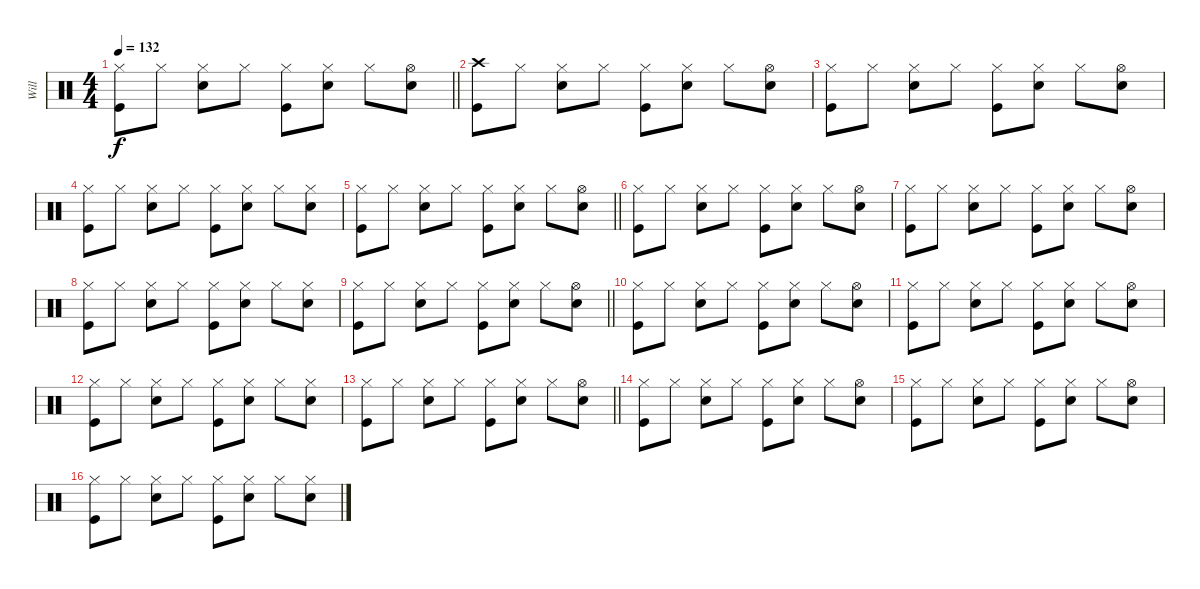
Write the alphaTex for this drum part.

\track ("Will" "Will") {instrument percussion}
\staff {score}
\articulation defaults
\ts (4 4)
\tempo 132
\clef neutral
\barLineRight lightlight
\ks c
("Hi-Hat (closed)" "Kick (hit)").8{dy f} "Hi-Hat (closed)".8 ("Hi-Hat (closed)" "Snare (hit) 2").8 "Hi-Hat (closed)".8 ("Hi-Hat (closed)" "Kick (hit)").8 ("Hi-Hat (closed)" "Snare (hit) 2").8 "Hi-Hat (closed)".8 ("Hi-Hat (open)" "Snare (hit) 2").8 |
("Crash high (hit)" "Kick (hit)").8 "Hi-Hat (closed)".8 ("Hi-Hat (closed)" "Snare (hit) 2").8 "Hi-Hat (closed)".8 ("Hi-Hat (closed)" "Kick (hit)").8 ("Hi-Hat (closed)" "Snare (hit) 2").8 "Hi-Hat (closed)".8 ("Hi-Hat (open)" "Snare (hit) 2").8 |
("Hi-Hat (closed)" "Kick (hit)").8 "Hi-Hat (closed)".8 ("Hi-Hat (closed)" "Snare (hit) 2").8 "Hi-Hat (closed)".8 ("Hi-Hat (closed)" "Kick (hit)").8 ("Hi-Hat (closed)" "Snare (hit) 2").8 "Hi-Hat (closed)".8 ("Hi-Hat (open)" "Snare (hit) 2").8 |
("Hi-Hat (closed)" "Kick (hit)").8 "Hi-Hat (closed)".8 ("Hi-Hat (closed)" "Snare (hit) 2").8 "Hi-Hat (closed)".8 ("Hi-Hat (closed)" "Kick (hit)").8 ("Hi-Hat (closed)" "Snare (hit) 2").8 "Hi-Hat (closed)".8 ("Hi-Hat (closed)" "Snare (hit) 2").8 |
\barLineRight lightlight
("Hi-Hat (closed)" "Kick (hit)").8 "Hi-Hat (closed)".8 ("Hi-Hat (closed)" "Snare (hit) 2").8 "Hi-Hat (closed)".8 ("Hi-Hat (closed)" "Kick (hit)").8 ("Hi-Hat (closed)" "Snare (hit) 2").8 "Hi-Hat (closed)".8 ("Hi-Hat (open)" "Snare (hit) 2").8 |
("Hi-Hat (closed)" "Kick (hit)").8 "Hi-Hat (closed)".8 ("Hi-Hat (closed)" "Snare (hit) 2").8 "Hi-Hat (closed)".8 ("Hi-Hat (closed)" "Kick (hit)").8 ("Hi-Hat (closed)" "Snare (hit) 2").8 "Hi-Hat (closed)".8 ("Hi-Hat (open)" "Snare (hit) 2").8 |
("Hi-Hat (closed)" "Kick (hit)").8 "Hi-Hat (closed)".8 ("Hi-Hat (closed)" "Snare (hit) 2").8 "Hi-Hat (closed)".8 ("Hi-Hat (closed)" "Kick (hit)").8 ("Hi-Hat (closed)" "Snare (hit) 2").8 "Hi-Hat (closed)".8 ("Hi-Hat (open)" "Snare (hit) 2").8 |
("Hi-Hat (closed)" "Kick (hit)").8 "Hi-Hat (closed)".8 ("Hi-Hat (closed)" "Snare (hit) 2").8 "Hi-Hat (closed)".8 ("Hi-Hat (closed)" "Kick (hit)").8 ("Hi-Hat (closed)" "Snare (hit) 2").8 "Hi-Hat (closed)".8 ("Hi-Hat (closed)" "Snare (hit) 2").8 |
\barLineRight lightlight
("Hi-Hat (closed)" "Kick (hit)").8 "Hi-Hat (closed)".8 ("Hi-Hat (closed)" "Snare (hit) 2").8 "Hi-Hat (closed)".8 ("Hi-Hat (closed)" "Kick (hit)").8 ("Hi-Hat (closed)" "Snare (hit) 2").8 "Hi-Hat (closed)".8 ("Hi-Hat (open)" "Snare (hit) 2").8 |
("Hi-Hat (closed)" "Kick (hit)").8 "Hi-Hat (closed)".8 ("Hi-Hat (closed)" "Snare (hit) 2").8 "Hi-Hat (closed)".8 ("Hi-Hat (closed)" "Kick (hit)").8 ("Hi-Hat (closed)" "Snare (hit) 2").8 "Hi-Hat (closed)".8 ("Hi-Hat (open)" "Snare (hit) 2").8 |
("Hi-Hat (closed)" "Kick (hit)").8 "Hi-Hat (closed)".8 ("Hi-Hat (closed)" "Snare (hit) 2").8 "Hi-Hat (closed)".8 ("Hi-Hat (closed)" "Kick (hit)").8 ("Hi-Hat (closed)" "Snare (hit) 2").8 "Hi-Hat (closed)".8 ("Hi-Hat (open)" "Snare (hit) 2").8 |
("Hi-Hat (closed)" "Kick (hit)").8 "Hi-Hat (closed)".8 ("Hi-Hat (closed)" "Snare (hit) 2").8 "Hi-Hat (closed)".8 ("Hi-Hat (closed)" "Kick (hit)").8 ("Hi-Hat (closed)" "Snare (hit) 2").8 "Hi-Hat (closed)".8 ("Hi-Hat (closed)" "Snare (hit) 2").8 |
\barLineRight lightlight
("Hi-Hat (closed)" "Kick (hit)").8 "Hi-Hat (closed)".8 ("Hi-Hat (closed)" "Snare (hit) 2").8 "Hi-Hat (closed)".8 ("Hi-Hat (closed)" "Kick (hit)").8 ("Hi-Hat (closed)" "Snare (hit) 2").8 "Hi-Hat (closed)".8 ("Hi-Hat (open)" "Snare (hit) 2").8 |
("Hi-Hat (closed)" "Kick (hit)").8 "Hi-Hat (closed)".8 ("Hi-Hat (closed)" "Snare (hit) 2").8 "Hi-Hat (closed)".8 ("Hi-Hat (closed)" "Kick (hit)").8 ("Hi-Hat (closed)" "Snare (hit) 2").8 "Hi-Hat (closed)".8 ("Hi-Hat (open)" "Snare (hit) 2").8 |
("Hi-Hat (closed)" "Kick (hit)").8 "Hi-Hat (closed)".8 ("Hi-Hat (closed)" "Snare (hit) 2").8 "Hi-Hat (closed)".8 ("Hi-Hat (closed)" "Kick (hit)").8 ("Hi-Hat (closed)" "Snare (hit) 2").8 "Hi-Hat (closed)".8 ("Hi-Hat (open)" "Snare (hit) 2").8 |
("Hi-Hat (closed)" "Kick (hit)").8 "Hi-Hat (closed)".8 ("Hi-Hat (closed)" "Snare (hit) 2").8 "Hi-Hat (closed)".8 ("Hi-Hat (closed)" "Kick (hit)").8 ("Hi-Hat (closed)" "Snare (hit) 2").8 "Hi-Hat (closed)".8 ("Hi-Hat (closed)" "Snare (hit) 2").8
